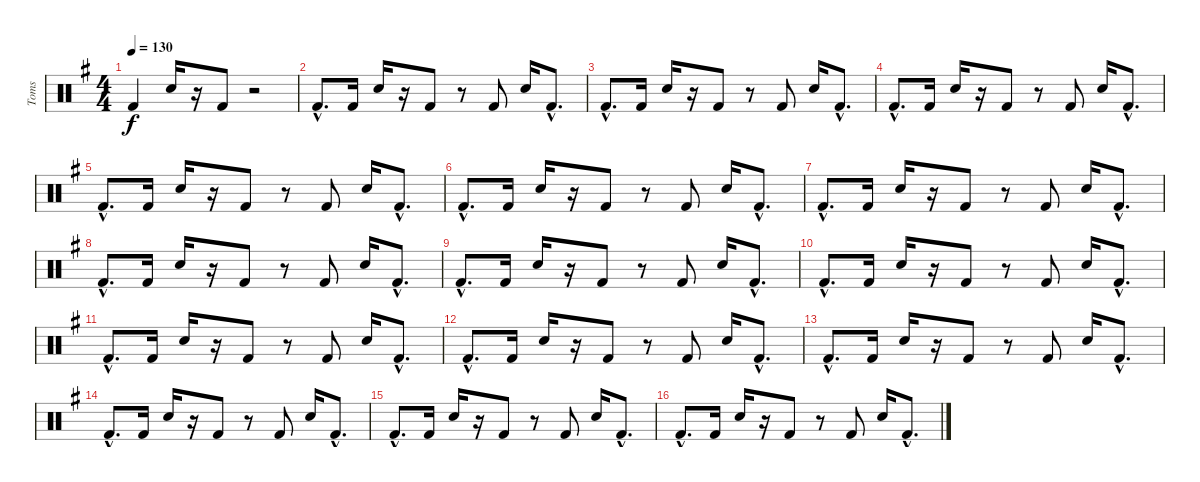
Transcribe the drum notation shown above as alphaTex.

\track ("Toms" "Toms") {instrument percussion}
\staff {score}
\articulation defaults
\ts (4 4)
\tempo 130
\clef neutral
\ks g "Kick (hit) 2".4{dy f} "Snare (hit) 2".16
r.16 "Kick (hit) 2".8 r.2 |
"Kick (hit) 2"{hac}.8{d} "Kick (hit) 2".16 "Snare (hit) 2".16 r.16 "Kick (hit) 2".8 r.8 "Kick (hit) 2".8 "Snare (hit) 2".16 "Kick (hit) 2"{hac}.8{d} |
"Kick (hit) 2"{hac}.8{d} "Kick (hit) 2".16 "Snare (hit) 2".16 r.16 "Kick (hit) 2".8 r.8 "Kick (hit) 2".8 "Snare (hit) 2".16 "Kick (hit) 2"{hac}.8{d} |
"Kick (hit) 2"{hac}.8{d} "Kick (hit) 2".16 "Snare (hit) 2".16 r.16 "Kick (hit) 2".8 r.8 "Kick (hit) 2".8 "Snare (hit) 2".16 "Kick (hit) 2"{hac}.8{d} |
"Kick (hit) 2"{hac}.8{d} "Kick (hit) 2".16 "Snare (hit) 2".16 r.16 "Kick (hit) 2".8 r.8 "Kick (hit) 2".8 "Snare (hit) 2".16 "Kick (hit) 2"{hac}.8{d} |
"Kick (hit) 2"{hac}.8{d} "Kick (hit) 2".16 "Snare (hit) 2".16 r.16 "Kick (hit) 2".8 r.8 "Kick (hit) 2".8 "Snare (hit) 2".16 "Kick (hit) 2"{hac}.8{d} |
"Kick (hit) 2"{hac}.8{d} "Kick (hit) 2".16 "Snare (hit) 2".16 r.16 "Kick (hit) 2".8 r.8 "Kick (hit) 2".8 "Snare (hit) 2".16 "Kick (hit) 2"{hac}.8{d} |
"Kick (hit) 2"{hac}.8{d} "Kick (hit) 2".16 "Snare (hit) 2".16 r.16 "Kick (hit) 2".8 r.8 "Kick (hit) 2".8 "Snare (hit) 2".16 "Kick (hit) 2"{hac}.8{d} |
"Kick (hit) 2"{hac}.8{d} "Kick (hit) 2".16 "Snare (hit) 2".16 r.16 "Kick (hit) 2".8 r.8 "Kick (hit) 2".8 "Snare (hit) 2".16 "Kick (hit) 2"{hac}.8{d} |
"Kick (hit) 2"{hac}.8{d} "Kick (hit) 2".16 "Snare (hit) 2".16 r.16 "Kick (hit) 2".8 r.8 "Kick (hit) 2".8 "Snare (hit) 2".16 "Kick (hit) 2"{hac}.8{d} |
"Kick (hit) 2"{hac}.8{d} "Kick (hit) 2".16 "Snare (hit) 2".16 r.16 "Kick (hit) 2".8 r.8 "Kick (hit) 2".8 "Snare (hit) 2".16 "Kick (hit) 2"{hac}.8{d} |
"Kick (hit) 2"{hac}.8{d} "Kick (hit) 2".16 "Snare (hit) 2".16 r.16 "Kick (hit) 2".8 r.8 "Kick (hit) 2".8 "Snare (hit) 2".16 "Kick (hit) 2"{hac}.8{d} |
"Kick (hit) 2"{hac}.8{d} "Kick (hit) 2".16 "Snare (hit) 2".16 r.16 "Kick (hit) 2".8 r.8 "Kick (hit) 2".8 "Snare (hit) 2".16 "Kick (hit) 2"{hac}.8{d} |
"Kick (hit) 2"{hac}.8{d} "Kick (hit) 2".16 "Snare (hit) 2".16 r.16 "Kick (hit) 2".8 r.8 "Kick (hit) 2".8 "Snare (hit) 2".16 "Kick (hit) 2"{hac}.8{d} |
"Kick (hit) 2"{hac}.8{d} "Kick (hit) 2".16 "Snare (hit) 2".16 r.16 "Kick (hit) 2".8 r.8 "Kick (hit) 2".8 "Snare (hit) 2".16 "Kick (hit) 2"{hac}.8{d} |
"Kick (hit) 2"{hac}.8{d} "Kick (hit) 2".16 "Snare (hit) 2".16 r.16 "Kick (hit) 2".8 r.8 "Kick (hit) 2".8 "Snare (hit) 2".16 "Kick (hit) 2"{hac}.8{d}
